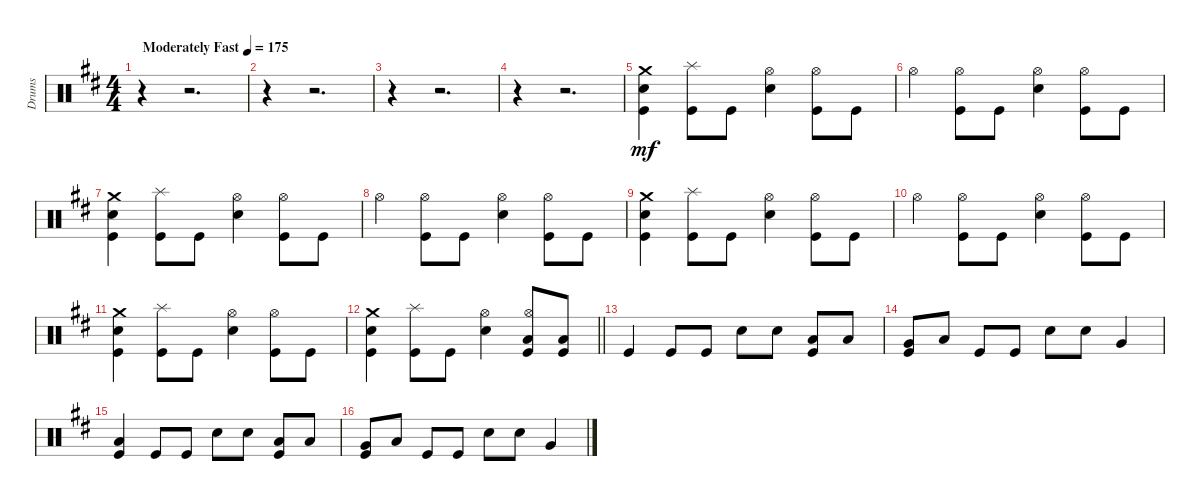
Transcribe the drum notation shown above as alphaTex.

\track ("Drums" "Drums") {instrument percussion}
\staff {score}
\articulation defaults
\ts (4 4)
\tempo (175 "Moderately Fast")
\clef neutral
\ks d
r.4{dy mf} r.2{d} |
r.4 r.2{d} |
r.4 r.2{d} |
r.4 r.2{d} |
("Crash medium (hit)" "Kick (hit)" "Snare (hit) 2").4 ("Splash (hit)" "Kick (hit)").8 "Kick (hit)".8 ("Snare (hit) 2" "Hi-Hat (open)").4 ("Hi-Hat (open)" "Kick (hit)").8 "Kick (hit)".8 |
"Hi-Hat (open)".4 ("Kick (hit)" "Hi-Hat (open)").8 "Kick (hit)".8 ("Hi-Hat (open)" "Snare (hit) 2").4 ("Kick (hit)" "Hi-Hat (open)").8 "Kick (hit)".8 |
("Crash medium (hit)" "Kick (hit)" "Snare (hit) 2").4 ("Splash (hit)" "Kick (hit)").8 "Kick (hit)".8 ("Snare (hit) 2" "Hi-Hat (open)").4 ("Hi-Hat (open)" "Kick (hit)").8 "Kick (hit)".8 |
"Hi-Hat (open)".4 ("Kick (hit)" "Hi-Hat (open)").8 "Kick (hit)".8 ("Hi-Hat (open)" "Snare (hit) 2").4 ("Kick (hit)" "Hi-Hat (open)").8 "Kick (hit)".8 |
("Crash medium (hit)" "Kick (hit)" "Snare (hit) 2").4 ("Splash (hit)" "Kick (hit)").8 "Kick (hit)".8 ("Snare (hit) 2" "Hi-Hat (open)").4 ("Hi-Hat (open)" "Kick (hit)").8 "Kick (hit)".8 |
"Hi-Hat (open)".4 ("Kick (hit)" "Hi-Hat (open)").8 "Kick (hit)".8 ("Hi-Hat (open)" "Snare (hit) 2").4 ("Kick (hit)" "Hi-Hat (open)").8 "Kick (hit)".8 |
("Crash medium (hit)" "Kick (hit)" "Snare (hit) 2").4 ("Splash (hit)" "Kick (hit)").8 "Kick (hit)".8 ("Snare (hit) 2" "Hi-Hat (open)").4 ("Hi-Hat (open)" "Kick (hit)").8 "Kick (hit)".8 |
\barLineRight lightlight
("Crash medium (hit)" "Kick (hit)" "Snare (hit) 2").4 ("Splash (hit)" "Kick (hit)").8 "Kick (hit)".8 ("Snare (hit) 2" "Hi-Hat (open)").4 ("Hi-Hat (open)" "Kick (hit)" "Low Floor Tom (hit)").8 ("Kick (hit)" "Low Floor Tom (hit)").8 |
"Kick (hit)".4 "Kick (hit)".8 "Kick (hit)".8 "Snare (hit) 2".8 "Snare (hit) 2".8 ("Kick (hit)" "Low Floor Tom (hit)").8 "Low Floor Tom (hit)".8 |
("Kick (hit)" "Very Low Tom (hit)").8 "Low Floor Tom (hit)".8 "Kick (hit)".8 "Kick (hit)".8 "Snare (hit) 2".8 "Snare (hit) 2".8 "Very Low Tom (hit)".4 |
("Kick (hit)" "Low Floor Tom (hit)").4 "Kick (hit)".8 "Kick (hit)".8 "Snare (hit) 2".8 "Snare (hit) 2".8 ("Kick (hit)" "Low Floor Tom (hit)").8 "Low Floor Tom (hit)".8 |
("Kick (hit)" "Very Low Tom (hit)").8 "Low Floor Tom (hit)".8 "Kick (hit)".8 "Kick (hit)".8 "Snare (hit) 2".8 "Snare (hit) 2".8 "Very Low Tom (hit)".4
